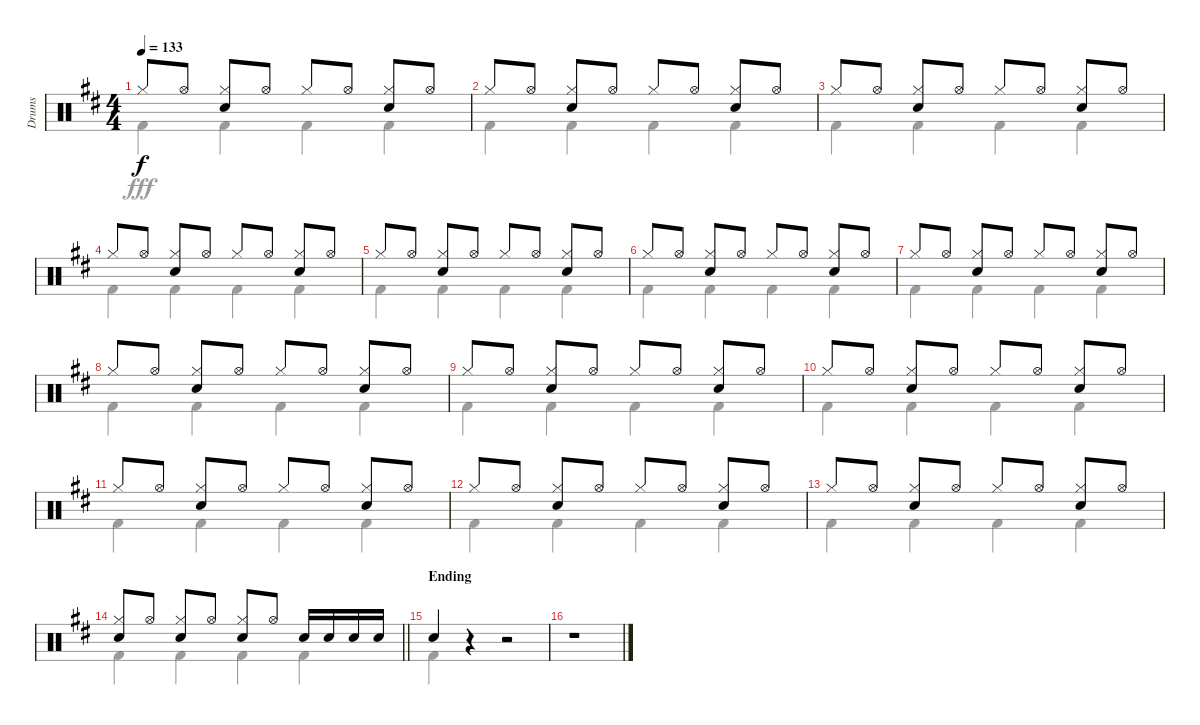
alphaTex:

\track ("Drums" "Drums") {instrument percussion}
\staff {score}
\articulation defaults
\voice
\ts (4 4)
\tempo 133
\clef neutral
\ks d "Hi-Hat (closed)".8{dy f} "Hi-Hat (open)".8
("Hi-Hat (closed)" "Snare (hit) 2").8 "Hi-Hat (open)".8 "Hi-Hat (closed)".8 "Hi-Hat (open)".8 ("Hi-Hat (closed)" "Snare (hit) 2").8 "Hi-Hat (open)".8 |
"Hi-Hat (closed)".8 "Hi-Hat (open)".8 ("Hi-Hat (closed)" "Snare (hit) 2").8 "Hi-Hat (open)".8 "Hi-Hat (closed)".8 "Hi-Hat (open)".8 ("Hi-Hat (closed)" "Snare (hit) 2").8 "Hi-Hat (open)".8 |
"Hi-Hat (closed)".8 "Hi-Hat (open)".8 ("Hi-Hat (closed)" "Snare (hit) 2").8 "Hi-Hat (open)".8 "Hi-Hat (closed)".8 "Hi-Hat (open)".8 ("Hi-Hat (closed)" "Snare (hit) 2").8 "Hi-Hat (open)".8 |
"Hi-Hat (closed)".8 "Hi-Hat (open)".8 ("Hi-Hat (closed)" "Snare (hit) 2").8 "Hi-Hat (open)".8 "Hi-Hat (closed)".8 "Hi-Hat (open)".8 ("Hi-Hat (closed)" "Snare (hit) 2").8 "Hi-Hat (open)".8 |
"Hi-Hat (closed)".8 "Hi-Hat (open)".8 ("Hi-Hat (closed)" "Snare (hit) 2").8 "Hi-Hat (open)".8 "Hi-Hat (closed)".8 "Hi-Hat (open)".8 ("Hi-Hat (closed)" "Snare (hit) 2").8 "Hi-Hat (open)".8 |
"Hi-Hat (closed)".8 "Hi-Hat (open)".8 ("Hi-Hat (closed)" "Snare (hit) 2").8 "Hi-Hat (open)".8 "Hi-Hat (closed)".8 "Hi-Hat (open)".8 ("Hi-Hat (closed)" "Snare (hit) 2").8 "Hi-Hat (open)".8 |
"Hi-Hat (closed)".8 "Hi-Hat (open)".8 ("Hi-Hat (closed)" "Snare (hit) 2").8 "Hi-Hat (open)".8 "Hi-Hat (closed)".8 "Hi-Hat (open)".8 ("Hi-Hat (closed)" "Snare (hit) 2").8 "Hi-Hat (open)".8 |
"Hi-Hat (closed)".8 "Hi-Hat (open)".8 ("Hi-Hat (closed)" "Snare (hit) 2").8 "Hi-Hat (open)".8 "Hi-Hat (closed)".8 "Hi-Hat (open)".8 ("Hi-Hat (closed)" "Snare (hit) 2").8 "Hi-Hat (open)".8 |
"Hi-Hat (closed)".8 "Hi-Hat (open)".8 ("Hi-Hat (closed)" "Snare (hit) 2").8 "Hi-Hat (open)".8 "Hi-Hat (closed)".8 "Hi-Hat (open)".8 ("Hi-Hat (closed)" "Snare (hit) 2").8 "Hi-Hat (open)".8 |
"Hi-Hat (closed)".8 "Hi-Hat (open)".8 ("Hi-Hat (closed)" "Snare (hit) 2").8 "Hi-Hat (open)".8 "Hi-Hat (closed)".8 "Hi-Hat (open)".8 ("Hi-Hat (closed)" "Snare (hit) 2").8 "Hi-Hat (open)".8 |
"Hi-Hat (closed)".8 "Hi-Hat (open)".8 ("Hi-Hat (closed)" "Snare (hit) 2").8 "Hi-Hat (open)".8 "Hi-Hat (closed)".8 "Hi-Hat (open)".8 ("Hi-Hat (closed)" "Snare (hit) 2").8 "Hi-Hat (open)".8 |
"Hi-Hat (closed)".8 "Hi-Hat (open)".8 ("Hi-Hat (closed)" "Snare (hit) 2").8 "Hi-Hat (open)".8 "Hi-Hat (closed)".8 "Hi-Hat (open)".8 ("Hi-Hat (closed)" "Snare (hit) 2").8 "Hi-Hat (open)".8 |
"Hi-Hat (closed)".8 "Hi-Hat (open)".8 ("Hi-Hat (closed)" "Snare (hit) 2").8 "Hi-Hat (open)".8 "Hi-Hat (closed)".8 "Hi-Hat (open)".8 ("Hi-Hat (closed)" "Snare (hit) 2").8 "Hi-Hat (open)".8 |
\barLineRight lightlight
("Hi-Hat (closed)" "Snare (hit) 2").8 "Hi-Hat (open)".8 ("Hi-Hat (closed)" "Snare (hit) 2").8 "Hi-Hat (open)".8 ("Hi-Hat (closed)" "Snare (hit) 2").8 "Hi-Hat (open)".8 "Snare (hit) 2".16 "Snare (hit) 2".16 "Snare (hit) 2".16 "Snare (hit) 2".16 |
\section ("" "Ending")
"Snare (hit) 2".4 r.4 r.2 |
r.1
\voice
\clef neutral
\ottava regular
\simile none
\ks d "Kick (hit) 2".4{dy fff} "Kick (hit) 2".4 "Kick (hit) 2".4 "Kick (hit) 2".4
|
"Kick (hit) 2".4 "Kick (hit) 2".4 "Kick (hit) 2".4 "Kick (hit) 2".4 |
"Kick (hit) 2".4 "Kick (hit) 2".4 "Kick (hit) 2".4 "Kick (hit) 2".4 |
"Kick (hit) 2".4 "Kick (hit) 2".4 "Kick (hit) 2".4 "Kick (hit) 2".4 |
"Kick (hit) 2".4 "Kick (hit) 2".4 "Kick (hit) 2".4 "Kick (hit) 2".4 |
"Kick (hit) 2".4 "Kick (hit) 2".4 "Kick (hit) 2".4 "Kick (hit) 2".4 |
"Kick (hit) 2".4 "Kick (hit) 2".4 "Kick (hit) 2".4 "Kick (hit) 2".4 |
"Kick (hit) 2".4 "Kick (hit) 2".4 "Kick (hit) 2".4 "Kick (hit) 2".4 |
"Kick (hit) 2".4 "Kick (hit) 2".4 "Kick (hit) 2".4 "Kick (hit) 2".4 |
"Kick (hit) 2".4 "Kick (hit) 2".4 "Kick (hit) 2".4 "Kick (hit) 2".4 |
"Kick (hit) 2".4 "Kick (hit) 2".4 "Kick (hit) 2".4 "Kick (hit) 2".4 |
"Kick (hit) 2".4 "Kick (hit) 2".4 "Kick (hit) 2".4 "Kick (hit) 2".4 |
"Kick (hit) 2".4 "Kick (hit) 2".4 "Kick (hit) 2".4 "Kick (hit) 2".4 |
\barLineRight lightlight "Kick (hit) 2".4 "Kick (hit) 2".4 "Kick (hit) 2".4 "Kick (hit) 2".4
|
"Kick (hit) 2".4 r.4 r.2 |
r.1
